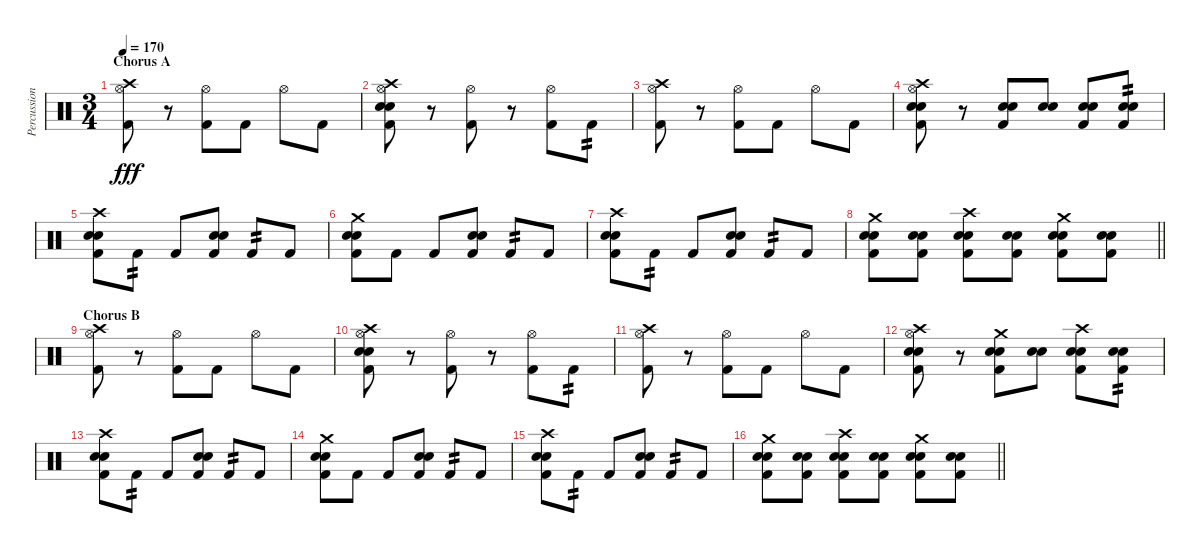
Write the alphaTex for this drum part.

\track ("Percussion" "Percussion") {instrument percussion}
\staff {score}
\articulation defaults
\ts (3 4)
\section ("" "Chorus A")
\tempo 170
\clef neutral
\ks c
("Crash high (hit)" "Hi-Hat (open)" "Kick (hit) 2").8{dy fff} r.8 ("Hi-Hat (open)" "Kick (hit) 2").8 "Kick (hit) 2".8 "Hi-Hat (open)".8 "Kick (hit) 2".8 |
("Crash high (hit)" "Hi-Hat (open)" "Electric Snare (hit)" "Snare (hit) 2" "Kick (hit) 2").8 r.8 ("Hi-Hat (open)" "Kick (hit) 2").8 r.8 ("Hi-Hat (open)" "Kick (hit) 2").8 "Kick (hit) 2".8{tp 2} |
("Crash high (hit)" "Hi-Hat (open)" "Kick (hit) 2").8 r.8 ("Hi-Hat (open)" "Kick (hit) 2").8 "Kick (hit) 2".8 "Hi-Hat (open)".8 "Kick (hit) 2".8 |
("Crash high (hit)" "Hi-Hat (open)" "Electric Snare (hit)" "Snare (hit) 2" "Kick (hit) 2").8 r.8 ("Electric Snare (hit)" "Snare (hit) 2" "Kick (hit) 2").8 ("Electric Snare (hit)" "Snare (hit) 2").8 ("Electric Snare (hit)" "Snare (hit) 2" "Kick (hit) 2").8 ("Electric Snare (hit)" "Snare (hit) 2" "Kick (hit) 2").8{tp 2} |
("Crash high (hit)" "Electric Snare (hit)" "Snare (hit) 2" "Kick (hit) 2").8 "Kick (hit) 2".8{tp 2} "Kick (hit) 2".8 ("Electric Snare (hit)" "Snare (hit) 2" "Kick (hit) 2").8 "Kick (hit) 2".8{tp 2} "Kick (hit) 2".8 |
("Crash medium (hit)" "Electric Snare (hit)" "Snare (hit) 2" "Kick (hit) 2").8 "Kick (hit) 2".8 "Kick (hit) 2".8 ("Electric Snare (hit)" "Snare (hit) 2" "Kick (hit) 2").8 "Kick (hit) 2".8{tp 2} "Kick (hit) 2".8 |
("Crash high (hit)" "Electric Snare (hit)" "Snare (hit) 2" "Kick (hit) 2").8 "Kick (hit) 2".8{tp 2} "Kick (hit) 2".8 ("Electric Snare (hit)" "Snare (hit) 2" "Kick (hit) 2").8 "Kick (hit) 2".8{tp 2} "Kick (hit) 2".8 |
\barLineRight lightlight
("Crash medium (hit)" "Electric Snare (hit)" "Snare (hit) 2" "Kick (hit) 2").8 ("Electric Snare (hit)" "Snare (hit) 2" "Kick (hit) 2").8 ("Crash high (hit)" "Electric Snare (hit)" "Snare (hit) 2" "Kick (hit) 2").8 ("Electric Snare (hit)" "Snare (hit) 2" "Kick (hit) 2").8 ("Crash medium (hit)" "Electric Snare (hit)" "Snare (hit) 2" "Kick (hit) 2").8 ("Electric Snare (hit)" "Snare (hit) 2" "Kick (hit) 2").8 |
\section ("" "Chorus B")
("Crash high (hit)" "Hi-Hat (open)" "Kick (hit) 2").8 r.8 ("Hi-Hat (open)" "Kick (hit) 2").8 "Kick (hit) 2".8 "Hi-Hat (open)".8 "Kick (hit) 2".8 |
("Crash high (hit)" "Hi-Hat (open)" "Electric Snare (hit)" "Snare (hit) 2" "Kick (hit) 2").8 r.8 ("Hi-Hat (open)" "Kick (hit) 2").8 r.8 ("Hi-Hat (open)" "Kick (hit) 2").8 "Kick (hit) 2".8{tp 2} |
("Crash high (hit)" "Hi-Hat (open)" "Kick (hit) 2").8 r.8 ("Hi-Hat (open)" "Kick (hit) 2").8 "Kick (hit) 2".8 "Hi-Hat (open)".8 "Kick (hit) 2".8 |
("Crash high (hit)" "Hi-Hat (open)" "Electric Snare (hit)" "Snare (hit) 2" "Kick (hit) 2").8 r.8 ("Crash medium (hit)" "Electric Snare (hit)" "Snare (hit) 2" "Kick (hit) 2").8 ("Electric Snare (hit)" "Snare (hit) 2").8 ("Crash high (hit)" "Electric Snare (hit)" "Snare (hit) 2" "Kick (hit) 2").8 ("Electric Snare (hit)" "Snare (hit) 2" "Kick (hit) 2").8{tp 2} |
("Crash high (hit)" "Electric Snare (hit)" "Snare (hit) 2" "Kick (hit) 2").8 "Kick (hit) 2".8{tp 2} "Kick (hit) 2".8 ("Electric Snare (hit)" "Snare (hit) 2" "Kick (hit) 2").8 "Kick (hit) 2".8{tp 2} "Kick (hit) 2".8 |
("Crash medium (hit)" "Electric Snare (hit)" "Snare (hit) 2" "Kick (hit) 2").8 "Kick (hit) 2".8 "Kick (hit) 2".8 ("Electric Snare (hit)" "Snare (hit) 2" "Kick (hit) 2").8 "Kick (hit) 2".8{tp 2} "Kick (hit) 2".8 |
("Crash high (hit)" "Electric Snare (hit)" "Snare (hit) 2" "Kick (hit) 2").8 "Kick (hit) 2".8{tp 2} "Kick (hit) 2".8 ("Electric Snare (hit)" "Snare (hit) 2" "Kick (hit) 2").8 "Kick (hit) 2".8{tp 2} "Kick (hit) 2".8 |
\barLineRight lightlight
("Crash medium (hit)" "Electric Snare (hit)" "Snare (hit) 2" "Kick (hit) 2").8 ("Electric Snare (hit)" "Snare (hit) 2" "Kick (hit) 2").8 ("Crash high (hit)" "Electric Snare (hit)" "Snare (hit) 2" "Kick (hit) 2").8 ("Electric Snare (hit)" "Snare (hit) 2" "Kick (hit) 2").8 ("Crash medium (hit)" "Electric Snare (hit)" "Snare (hit) 2" "Kick (hit) 2").8 ("Electric Snare (hit)" "Snare (hit) 2" "Kick (hit) 2").8
